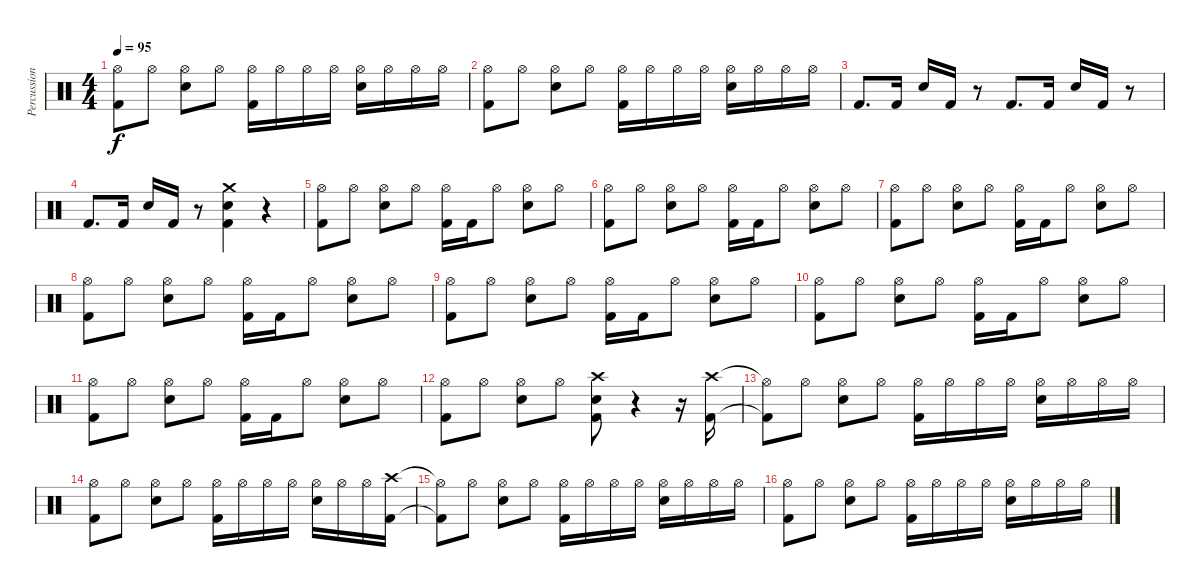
\track ("Percussion" "Percussion") {instrument percussion}
\staff {score}
\articulation defaults
\ts (4 4)
\tempo 95
\clef neutral
\ks c
("Hi-Hat (open)"{t} "Kick (hit) 2"{t}).8{dy f} "Hi-Hat (open)".8 ("Hi-Hat (open)" "Snare (hit) 2").8 "Hi-Hat (open)".8 ("Hi-Hat (open)" "Kick (hit) 2").16 "Hi-Hat (open)".16 "Hi-Hat (open)".16 "Hi-Hat (open)".16 ("Hi-Hat (open)" "Snare (hit) 2").16 "Hi-Hat (open)".16 "Hi-Hat (open)".16 "Hi-Hat (open)".16 |
("Hi-Hat (open)" "Kick (hit) 2").8 "Hi-Hat (open)".8 ("Hi-Hat (open)" "Snare (hit) 2").8 "Hi-Hat (open)".8 ("Hi-Hat (open)" "Kick (hit) 2").16 "Hi-Hat (open)".16 "Hi-Hat (open)".16 "Hi-Hat (open)".16 ("Hi-Hat (open)" "Snare (hit) 2").16 "Hi-Hat (open)".16 "Hi-Hat (open)".16 "Hi-Hat (open)".16 |
"Kick (hit) 2".8{d} "Kick (hit) 2".16 "Snare (hit) 2".16 "Kick (hit) 2".16 r.8 "Kick (hit) 2".8{d} "Kick (hit) 2".16 "Snare (hit) 2".16 "Kick (hit) 2".16 r.8 |
"Kick (hit) 2".8{d} "Kick (hit) 2".16 "Snare (hit) 2".16 "Kick (hit) 2".16 r.8 ("Crash medium (hit)" "Snare (hit) 2" "Kick (hit) 2").4 r.4 |
("Hi-Hat (open)" "Kick (hit) 2").8 "Hi-Hat (open)".8 ("Hi-Hat (open)" "Snare (hit) 2").8 "Hi-Hat (open)".8 ("Hi-Hat (open)" "Kick (hit) 2").16 "Kick (hit) 2".16 "Hi-Hat (open)".8 ("Hi-Hat (open)" "Snare (hit) 2").8 "Hi-Hat (open)".8 |
("Hi-Hat (open)" "Kick (hit) 2").8 "Hi-Hat (open)".8 ("Hi-Hat (open)" "Snare (hit) 2").8 "Hi-Hat (open)".8 ("Hi-Hat (open)" "Kick (hit) 2").16 "Kick (hit) 2".16 "Hi-Hat (open)".8 ("Hi-Hat (open)" "Snare (hit) 2").8 "Hi-Hat (open)".8 |
("Hi-Hat (open)" "Kick (hit) 2").8 "Hi-Hat (open)".8 ("Hi-Hat (open)" "Snare (hit) 2").8 "Hi-Hat (open)".8 ("Hi-Hat (open)" "Kick (hit) 2").16 "Kick (hit) 2".16 "Hi-Hat (open)".8 ("Hi-Hat (open)" "Snare (hit) 2").8 "Hi-Hat (open)".8 |
("Hi-Hat (open)" "Kick (hit) 2").8 "Hi-Hat (open)".8 ("Hi-Hat (open)" "Snare (hit) 2").8 "Hi-Hat (open)".8 ("Hi-Hat (open)" "Kick (hit) 2").16 "Kick (hit) 2".16 "Hi-Hat (open)".8 ("Hi-Hat (open)" "Snare (hit) 2").8 "Hi-Hat (open)".8 |
("Hi-Hat (open)" "Kick (hit) 2").8 "Hi-Hat (open)".8 ("Hi-Hat (open)" "Snare (hit) 2").8 "Hi-Hat (open)".8 ("Hi-Hat (open)" "Kick (hit) 2").16 "Kick (hit) 2".16 "Hi-Hat (open)".8 ("Hi-Hat (open)" "Snare (hit) 2").8 "Hi-Hat (open)".8 |
("Hi-Hat (open)" "Kick (hit) 2").8 "Hi-Hat (open)".8 ("Hi-Hat (open)" "Snare (hit) 2").8 "Hi-Hat (open)".8 ("Hi-Hat (open)" "Kick (hit) 2").16 "Kick (hit) 2".16 "Hi-Hat (open)".8 ("Hi-Hat (open)" "Snare (hit) 2").8 "Hi-Hat (open)".8 |
("Hi-Hat (open)" "Kick (hit) 2").8 "Hi-Hat (open)".8 ("Hi-Hat (open)" "Snare (hit) 2").8 "Hi-Hat (open)".8 ("Hi-Hat (open)" "Kick (hit) 2").16 "Kick (hit) 2".16 "Hi-Hat (open)".8 ("Hi-Hat (open)" "Snare (hit) 2").8 "Hi-Hat (open)".8 |
("Hi-Hat (open)" "Kick (hit) 2").8 "Hi-Hat (open)".8 ("Hi-Hat (open)" "Snare (hit) 2").8 "Hi-Hat (open)".8 ("Crash high (hit)" "Snare (hit) 2" "Kick (hit) 2").8 r.4 r.16 ("Crash high (hit)" "Kick (hit) 2").16 |
("Hi-Hat (open)"{t} "Kick (hit) 2"{t}).8 "Hi-Hat (open)".8 ("Hi-Hat (open)" "Snare (hit) 2").8 "Hi-Hat (open)".8 ("Hi-Hat (open)" "Kick (hit) 2").16 "Hi-Hat (open)".16 "Hi-Hat (open)".16 "Hi-Hat (open)".16 ("Hi-Hat (open)" "Snare (hit) 2").16 "Hi-Hat (open)".16 "Hi-Hat (open)".16 "Hi-Hat (open)".16 |
("Hi-Hat (open)" "Kick (hit) 2").8 "Hi-Hat (open)".8 ("Hi-Hat (open)" "Snare (hit) 2").8 "Hi-Hat (open)".8 ("Hi-Hat (open)" "Kick (hit) 2").16 "Hi-Hat (open)".16 "Hi-Hat (open)".16 "Hi-Hat (open)".16 ("Hi-Hat (open)" "Snare (hit) 2").16 "Hi-Hat (open)".16 "Hi-Hat (open)".16 ("Crash high (hit)" "Kick (hit) 2").16 |
("Hi-Hat (open)"{t} "Kick (hit) 2"{t}).8 "Hi-Hat (open)".8 ("Hi-Hat (open)" "Snare (hit) 2").8 "Hi-Hat (open)".8 ("Hi-Hat (open)" "Kick (hit) 2").16 "Hi-Hat (open)".16 "Hi-Hat (open)".16 "Hi-Hat (open)".16 ("Hi-Hat (open)" "Snare (hit) 2").16 "Hi-Hat (open)".16 "Hi-Hat (open)".16 "Hi-Hat (open)".16 |
("Hi-Hat (open)" "Kick (hit) 2").8 "Hi-Hat (open)".8 ("Hi-Hat (open)" "Snare (hit) 2").8 "Hi-Hat (open)".8 ("Hi-Hat (open)" "Kick (hit) 2").16 "Hi-Hat (open)".16 "Hi-Hat (open)".16 "Hi-Hat (open)".16 ("Hi-Hat (open)" "Snare (hit) 2").16 "Hi-Hat (open)".16 "Hi-Hat (open)".16 "Hi-Hat (open)".16
